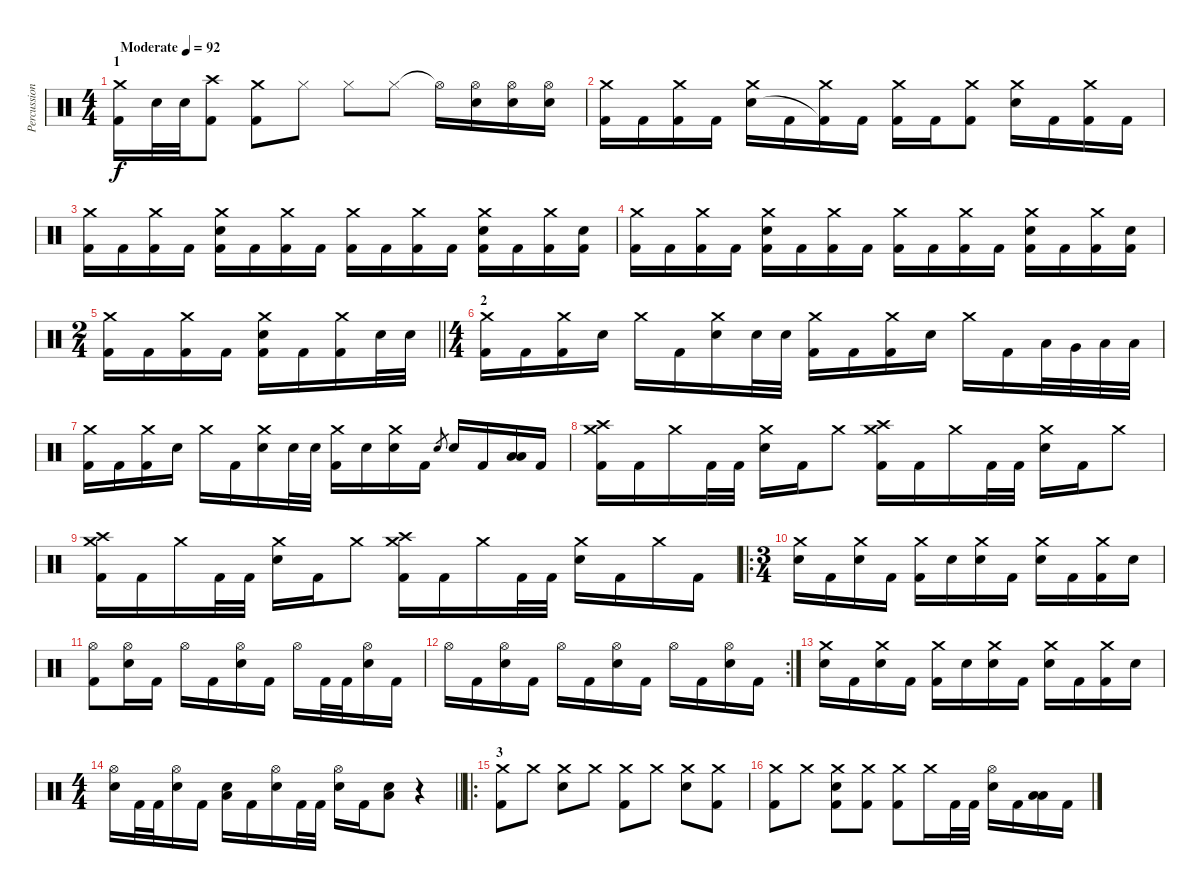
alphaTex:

\track ("Percussion" "Percussion") {instrument percussion}
\staff {score}
\articulation defaults
\ts (4 4)
\section ("" "1")
\tempo (92 "Moderate")
\clef neutral
\ks c
("Crash medium (hit)" "Kick (hit) 2").16{dy f} "Electric Snare (hit)".32 "Electric Snare (hit)".32 ("Crash high (hit)" "Kick (hit) 2").8 ("Crash medium (hit)" "Kick (hit) 2").8 "Hi-Hat (closed)".8 "Hi-Hat (closed)".8 "Hi-Hat (closed)".8 "Hi-Hat (open)"{t}.16 ("Hi-Hat (open)" "Electric Snare (hit)").16 ("Hi-Hat (open)" "Electric Snare (hit)").16 ("Hi-Hat (open)" "Electric Snare (hit)").16 |
("Crash medium (hit)" "Kick (hit) 2").16 "Kick (hit) 2".16 ("Crash medium (hit)" "Kick (hit) 2").16 "Kick (hit) 2".16 ("Crash medium (hit)" "Electric Snare (hit)").16 "Kick (hit) 2".16 ("Crash medium (hit)" "Kick (hit) 2"{t}).16 "Kick (hit) 2".16 ("Crash medium (hit)" "Kick (hit) 2").16 "Kick (hit) 2".16 ("Crash medium (hit)" "Kick (hit) 2").8 ("Crash medium (hit)" "Electric Snare (hit)").16 "Kick (hit) 2".16 ("Crash medium (hit)" "Kick (hit) 2").16 "Kick (hit) 2".16 |
("Crash medium (hit)" "Kick (hit) 2").16 "Kick (hit) 2".16 ("Crash medium (hit)" "Kick (hit) 2").16 "Kick (hit) 2".16 ("Crash medium (hit)" "Electric Snare (hit)" "Kick (hit) 2").16 "Kick (hit) 2".16 ("Crash medium (hit)" "Kick (hit) 2").16 "Kick (hit) 2".16 ("Crash medium (hit)" "Kick (hit) 2").16 "Kick (hit) 2".16 ("Crash medium (hit)" "Kick (hit) 2").16 "Kick (hit) 2".16 ("Crash medium (hit)" "Electric Snare (hit)" "Kick (hit) 2").16 "Kick (hit) 2".16 ("Crash medium (hit)" "Kick (hit) 2").16 ("Electric Snare (hit)" "Kick (hit) 2").16 |
("Crash medium (hit)" "Kick (hit) 2").16 "Kick (hit) 2".16 ("Crash medium (hit)" "Kick (hit) 2").16 "Kick (hit) 2".16 ("Crash medium (hit)" "Electric Snare (hit)" "Kick (hit) 2").16 "Kick (hit) 2".16 ("Crash medium (hit)" "Kick (hit) 2").16 "Kick (hit) 2".16 ("Crash medium (hit)" "Kick (hit) 2").16 "Kick (hit) 2".16 ("Crash medium (hit)" "Kick (hit) 2").16 "Kick (hit) 2".16 ("Crash medium (hit)" "Electric Snare (hit)" "Kick (hit) 2").16 "Kick (hit) 2".16 ("Crash medium (hit)" "Kick (hit) 2").16 ("Electric Snare (hit)" "Kick (hit) 2").16 |
\ts (2 4)
\barLineRight lightlight
("Crash medium (hit)" "Kick (hit) 2").16 "Kick (hit) 2".16 ("Crash medium (hit)" "Kick (hit) 2").16 "Kick (hit) 2".16 ("Crash medium (hit)" "Electric Snare (hit)" "Kick (hit) 2").16 "Kick (hit) 2".16 ("Crash medium (hit)" "Kick (hit) 2").16 "Electric Snare (hit)".32 "Electric Snare (hit)".32 |
\ts (4 4)
\section ("" "2")
("Crash medium (hit)" "Kick (hit) 2").16 "Kick (hit) 2".16 ("Crash medium (hit)" "Kick (hit) 2").16 "Electric Snare (hit)".16 "Crash medium (hit)".16 "Kick (hit) 2".16 ("Crash medium (hit)" "Electric Snare (hit)").16 "Electric Snare (hit)".32 "Electric Snare (hit)".32 ("Crash medium (hit)" "Kick (hit) 2").16 "Kick (hit) 2".16 ("Crash medium (hit)" "Kick (hit) 2").16 "Electric Snare (hit)".16 "Crash medium (hit)".16 "Kick (hit) 2".16 "Low Tom (hit)".32 "Very Low Tom (hit)".32 "Low Floor Tom (hit)".32 "Low Floor Tom (hit)".32 |
("Crash medium (hit)" "Kick (hit) 2").16 "Kick (hit) 2".16 ("Crash medium (hit)" "Kick (hit) 2").16 "Electric Snare (hit)".16 "Crash medium (hit)".16 "Kick (hit) 2".16 ("Crash medium (hit)" "Electric Snare (hit)").16 "Electric Snare (hit)".32 "Electric Snare (hit)".32 ("Crash medium (hit)" "Kick (hit) 2").16 "Electric Snare (hit)".16 ("Crash medium (hit)" "Electric Snare (hit)").16 "Kick (hit) 2".16 "Electric Snare (hit)".8{gr} "Electric Snare (hit)".16 "Kick (hit) 2".16 ("Low Tom (hit)" "Low Floor Tom (hit)").16 "Kick (hit) 2".16 |
("Crash medium (hit)" "Crash high (hit)" "Kick (hit) 2").16 "Kick (hit) 2".16 "Crash medium (hit)".16 "Kick (hit) 2".32 "Kick (hit) 2".32 ("Crash medium (hit)" "Electric Snare (hit)").16 "Kick (hit) 2".16 "Crash medium (hit)".8 ("Crash medium (hit)" "Crash high (hit)" "Kick (hit) 2").16 "Kick (hit) 2".16 "Crash medium (hit)".16 "Kick (hit) 2".32 "Kick (hit) 2".32 ("Crash medium (hit)" "Electric Snare (hit)").16 "Kick (hit) 2".16 "Crash medium (hit)".8 |
("Crash medium (hit)" "Crash high (hit)" "Kick (hit) 2").16 "Kick (hit) 2".16 "Crash medium (hit)".16 "Kick (hit) 2".32 "Kick (hit) 2".32 ("Crash medium (hit)" "Electric Snare (hit)").16 "Kick (hit) 2".16 "Crash medium (hit)".8 ("Crash medium (hit)" "Crash high (hit)" "Kick (hit) 2").16 "Kick (hit) 2".16 "Crash medium (hit)".16 "Kick (hit) 2".32 "Kick (hit) 2".32 ("Crash medium (hit)" "Electric Snare (hit)").16 "Kick (hit) 2".16 "Crash medium (hit)".16 "Kick (hit) 2".16 |
\ro
\ts (3 4)
("Crash medium (hit)" "Electric Snare (hit)").16 "Kick (hit) 2".16 ("Crash medium (hit)" "Electric Snare (hit)").16 "Kick (hit) 2".16 ("Crash medium (hit)" "Kick (hit) 2").16 "Electric Snare (hit)".16 ("Crash medium (hit)" "Electric Snare (hit)").16 "Kick (hit) 2".16 ("Crash medium (hit)" "Electric Snare (hit)").16 "Kick (hit) 2".16 ("Crash medium (hit)" "Kick (hit) 2").16 "Electric Snare (hit)".16 |
("Hi-Hat (open)" "Kick (hit) 2").8 ("Hi-Hat (open)" "Electric Snare (hit)").16 "Kick (hit) 2".16 "Hi-Hat (open)".16 "Kick (hit) 2".16 ("Hi-Hat (open)" "Electric Snare (hit)").16 "Kick (hit) 2".16 "Hi-Hat (open)".16 "Kick (hit) 2".32 "Kick (hit) 2".32 ("Hi-Hat (open)" "Electric Snare (hit)").16 "Kick (hit) 2".16 |
\rc 2 "Hi-Hat (open)".16 "Kick (hit) 2".16
("Hi-Hat (open)" "Electric Snare (hit)").16 "Kick (hit) 2".16 "Hi-Hat (open)".16 "Kick (hit) 2".16 ("Hi-Hat (open)" "Electric Snare (hit)").16 "Kick (hit) 2".16 "Hi-Hat (open)".16 "Kick (hit) 2".16 ("Hi-Hat (open)" "Electric Snare (hit)").16 "Kick (hit) 2".16 |
("Crash medium (hit)" "Electric Snare (hit)").16 "Kick (hit) 2".16 ("Crash medium (hit)" "Electric Snare (hit)").16 "Kick (hit) 2".16 ("Crash medium (hit)" "Kick (hit) 2").16 "Electric Snare (hit)".16 ("Crash medium (hit)" "Electric Snare (hit)").16 "Kick (hit) 2".16 ("Crash medium (hit)" "Electric Snare (hit)").16 "Kick (hit) 2".16 ("Crash medium (hit)" "Kick (hit) 2").16 "Electric Snare (hit)".16 |
\ts (4 4)
\barLineRight lightlight
("Hi-Hat (open)" "Electric Snare (hit)").16 "Kick (hit) 2".32 "Kick (hit) 2".32 ("Hi-Hat (open)" "Electric Snare (hit)").16 "Kick (hit) 2".16 ("Electric Snare (hit)" "Low Floor Tom (hit)").16 "Kick (hit) 2".16 ("Hi-Hat (open)" "Electric Snare (hit)").16 "Kick (hit) 2".32 "Kick (hit) 2".32 ("Hi-Hat (open)" "Electric Snare (hit)").16 "Kick (hit) 2".16 ("Electric Snare (hit)" "Low Floor Tom (hit)").8 r.4 |
\ro
\section ("" "3")
("Crash medium (hit)" "Kick (hit) 2").8 "Crash medium (hit)".8 ("Crash medium (hit)" "Electric Snare (hit)").8 "Crash medium (hit)".8 ("Crash medium (hit)" "Kick (hit) 2").8 "Crash medium (hit)".8 ("Crash medium (hit)" "Electric Snare (hit)").8 ("Crash medium (hit)" "Kick (hit) 2").8 |
("Crash medium (hit)" "Kick (hit) 2").8 "Crash medium (hit)".8 ("Crash medium (hit)" "Electric Snare (hit)" "Kick (hit) 2").8 ("Crash medium (hit)" "Kick (hit) 2").8 ("Crash medium (hit)" "Kick (hit) 2").8 "Crash medium (hit)".16 "Kick (hit) 2".32 "Kick (hit) 2".32 ("Hi-Hat (open)" "Electric Snare (hit)").16 "Kick (hit) 2".16 ("Low Tom (hit)" "Low Floor Tom (hit)").16 "Kick (hit) 2".16
